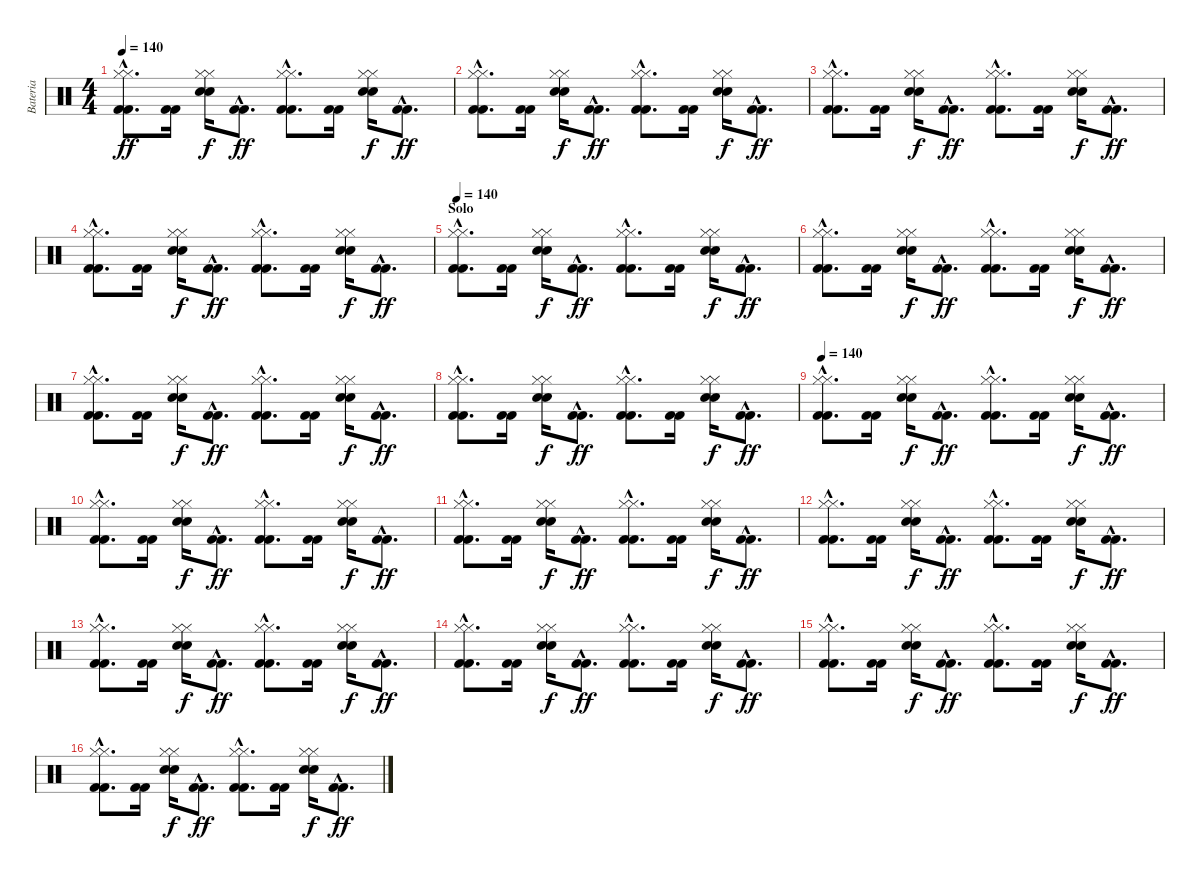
\track ("Bateria" "Bateria") {instrument percussion}
\staff {score}
\articulation defaults
\ts (4 4)
\tempo 140
\clef neutral
\ks c
("Hi-Hat (closed)"{hac} "Hi-Hat (closed)"{hac} "Kick (hit) 2"{hac} "Kick (hit) 2"{hac}).8{d dy ff} ("Kick (hit) 2" "Kick (hit) 2").16 ("Hi-Hat (closed)" "Hi-Hat (closed)" "Snare (hit) 2" "Snare (hit) 2").16{dy f} ("Kick (hit) 2"{hac} "Kick (hit) 2"{hac}).8{d dy ff} ("Hi-Hat (closed)"{hac} "Hi-Hat (closed)"{hac} "Kick (hit) 2"{hac} "Kick (hit) 2"{hac}).8{d} ("Kick (hit) 2" "Kick (hit) 2").16 ("Hi-Hat (closed)" "Hi-Hat (closed)" "Snare (hit) 2" "Snare (hit) 2").16{dy f} ("Kick (hit) 2"{hac} "Kick (hit) 2"{hac}).8{d dy ff} |
("Hi-Hat (closed)"{hac} "Hi-Hat (closed)"{hac} "Kick (hit) 2"{hac} "Kick (hit) 2"{hac}).8{d} ("Kick (hit) 2" "Kick (hit) 2").16 ("Hi-Hat (closed)" "Hi-Hat (closed)" "Snare (hit) 2" "Snare (hit) 2").16{dy f} ("Kick (hit) 2"{hac} "Kick (hit) 2"{hac}).8{d dy ff} ("Hi-Hat (closed)"{hac} "Hi-Hat (closed)"{hac} "Kick (hit) 2"{hac} "Kick (hit) 2"{hac}).8{d} ("Kick (hit) 2" "Kick (hit) 2").16 ("Hi-Hat (closed)" "Hi-Hat (closed)" "Snare (hit) 2" "Snare (hit) 2").16{dy f} ("Kick (hit) 2"{hac} "Kick (hit) 2"{hac}).8{d dy ff} |
("Hi-Hat (closed)"{hac} "Hi-Hat (closed)"{hac} "Kick (hit) 2"{hac} "Kick (hit) 2"{hac}).8{d} ("Kick (hit) 2" "Kick (hit) 2").16 ("Hi-Hat (closed)" "Hi-Hat (closed)" "Snare (hit) 2" "Snare (hit) 2").16{dy f} ("Kick (hit) 2"{hac} "Kick (hit) 2"{hac}).8{d dy ff} ("Hi-Hat (closed)"{hac} "Hi-Hat (closed)"{hac} "Kick (hit) 2"{hac} "Kick (hit) 2"{hac}).8{d} ("Kick (hit) 2" "Kick (hit) 2").16 ("Hi-Hat (closed)" "Hi-Hat (closed)" "Snare (hit) 2" "Snare (hit) 2").16{dy f} ("Kick (hit) 2"{hac} "Kick (hit) 2"{hac}).8{d dy ff} |
("Hi-Hat (closed)"{hac} "Hi-Hat (closed)"{hac} "Kick (hit) 2"{hac} "Kick (hit) 2"{hac}).8{d} ("Kick (hit) 2" "Kick (hit) 2").16 ("Hi-Hat (closed)" "Hi-Hat (closed)" "Snare (hit) 2" "Snare (hit) 2").16{dy f} ("Kick (hit) 2"{hac} "Kick (hit) 2"{hac}).8{d dy ff} ("Hi-Hat (closed)"{hac} "Hi-Hat (closed)"{hac} "Kick (hit) 2"{hac} "Kick (hit) 2"{hac}).8{d} ("Kick (hit) 2" "Kick (hit) 2").16 ("Hi-Hat (closed)" "Hi-Hat (closed)" "Snare (hit) 2" "Snare (hit) 2").16{dy f} ("Kick (hit) 2"{hac} "Kick (hit) 2"{hac}).8{d dy ff} |
\section ("" "Solo")
\tempo 140
("Hi-Hat (closed)"{hac} "Hi-Hat (closed)"{hac} "Kick (hit) 2"{hac} "Kick (hit) 2"{hac}).8{d} ("Kick (hit) 2" "Kick (hit) 2").16 ("Hi-Hat (closed)" "Hi-Hat (closed)" "Snare (hit) 2" "Snare (hit) 2").16{dy f} ("Kick (hit) 2"{hac} "Kick (hit) 2"{hac}).8{d dy ff} ("Hi-Hat (closed)"{hac} "Hi-Hat (closed)"{hac} "Kick (hit) 2"{hac} "Kick (hit) 2"{hac}).8{d} ("Kick (hit) 2" "Kick (hit) 2").16 ("Hi-Hat (closed)" "Hi-Hat (closed)" "Snare (hit) 2" "Snare (hit) 2").16{dy f} ("Kick (hit) 2"{hac} "Kick (hit) 2"{hac}).8{d dy ff} |
("Hi-Hat (closed)"{hac} "Hi-Hat (closed)"{hac} "Kick (hit) 2"{hac} "Kick (hit) 2"{hac}).8{d} ("Kick (hit) 2" "Kick (hit) 2").16 ("Hi-Hat (closed)" "Hi-Hat (closed)" "Snare (hit) 2" "Snare (hit) 2").16{dy f} ("Kick (hit) 2"{hac} "Kick (hit) 2"{hac}).8{d dy ff} ("Hi-Hat (closed)"{hac} "Hi-Hat (closed)"{hac} "Kick (hit) 2"{hac} "Kick (hit) 2"{hac}).8{d} ("Kick (hit) 2" "Kick (hit) 2").16 ("Hi-Hat (closed)" "Hi-Hat (closed)" "Snare (hit) 2" "Snare (hit) 2").16{dy f} ("Kick (hit) 2"{hac} "Kick (hit) 2"{hac}).8{d dy ff} |
("Hi-Hat (closed)"{hac} "Hi-Hat (closed)"{hac} "Kick (hit) 2"{hac} "Kick (hit) 2"{hac}).8{d} ("Kick (hit) 2" "Kick (hit) 2").16 ("Hi-Hat (closed)" "Hi-Hat (closed)" "Snare (hit) 2" "Snare (hit) 2").16{dy f} ("Kick (hit) 2"{hac} "Kick (hit) 2"{hac}).8{d dy ff} ("Hi-Hat (closed)"{hac} "Hi-Hat (closed)"{hac} "Kick (hit) 2"{hac} "Kick (hit) 2"{hac}).8{d} ("Kick (hit) 2" "Kick (hit) 2").16 ("Hi-Hat (closed)" "Hi-Hat (closed)" "Snare (hit) 2" "Snare (hit) 2").16{dy f} ("Kick (hit) 2"{hac} "Kick (hit) 2"{hac}).8{d dy ff} |
("Hi-Hat (closed)"{hac} "Hi-Hat (closed)"{hac} "Kick (hit) 2"{hac} "Kick (hit) 2"{hac}).8{d} ("Kick (hit) 2" "Kick (hit) 2").16 ("Hi-Hat (closed)" "Hi-Hat (closed)" "Snare (hit) 2" "Snare (hit) 2").16{dy f} ("Kick (hit) 2"{hac} "Kick (hit) 2"{hac}).8{d dy ff} ("Hi-Hat (closed)"{hac} "Hi-Hat (closed)"{hac} "Kick (hit) 2"{hac} "Kick (hit) 2"{hac}).8{d} ("Kick (hit) 2" "Kick (hit) 2").16 ("Hi-Hat (closed)" "Hi-Hat (closed)" "Snare (hit) 2" "Snare (hit) 2").16{dy f} ("Kick (hit) 2"{hac} "Kick (hit) 2"{hac}).8{d dy ff} |
\tempo 140
("Hi-Hat (closed)"{hac} "Hi-Hat (closed)"{hac} "Kick (hit) 2"{hac} "Kick (hit) 2"{hac}).8{d} ("Kick (hit) 2" "Kick (hit) 2").16 ("Hi-Hat (closed)" "Hi-Hat (closed)" "Snare (hit) 2" "Snare (hit) 2").16{dy f} ("Kick (hit) 2"{hac} "Kick (hit) 2"{hac}).8{d dy ff} ("Hi-Hat (closed)"{hac} "Hi-Hat (closed)"{hac} "Kick (hit) 2"{hac} "Kick (hit) 2"{hac}).8{d} ("Kick (hit) 2" "Kick (hit) 2").16 ("Hi-Hat (closed)" "Hi-Hat (closed)" "Snare (hit) 2" "Snare (hit) 2").16{dy f} ("Kick (hit) 2"{hac} "Kick (hit) 2"{hac}).8{d dy ff} |
("Hi-Hat (closed)"{hac} "Hi-Hat (closed)"{hac} "Kick (hit) 2"{hac} "Kick (hit) 2"{hac}).8{d} ("Kick (hit) 2" "Kick (hit) 2").16 ("Hi-Hat (closed)" "Hi-Hat (closed)" "Snare (hit) 2" "Snare (hit) 2").16{dy f} ("Kick (hit) 2"{hac} "Kick (hit) 2"{hac}).8{d dy ff} ("Hi-Hat (closed)"{hac} "Hi-Hat (closed)"{hac} "Kick (hit) 2"{hac} "Kick (hit) 2"{hac}).8{d} ("Kick (hit) 2" "Kick (hit) 2").16 ("Hi-Hat (closed)" "Hi-Hat (closed)" "Snare (hit) 2" "Snare (hit) 2").16{dy f} ("Kick (hit) 2"{hac} "Kick (hit) 2"{hac}).8{d dy ff} |
("Hi-Hat (closed)"{hac} "Hi-Hat (closed)"{hac} "Kick (hit) 2"{hac} "Kick (hit) 2"{hac}).8{d} ("Kick (hit) 2" "Kick (hit) 2").16 ("Hi-Hat (closed)" "Hi-Hat (closed)" "Snare (hit) 2" "Snare (hit) 2").16{dy f} ("Kick (hit) 2"{hac} "Kick (hit) 2"{hac}).8{d dy ff} ("Hi-Hat (closed)"{hac} "Hi-Hat (closed)"{hac} "Kick (hit) 2"{hac} "Kick (hit) 2"{hac}).8{d} ("Kick (hit) 2" "Kick (hit) 2").16 ("Hi-Hat (closed)" "Hi-Hat (closed)" "Snare (hit) 2" "Snare (hit) 2").16{dy f} ("Kick (hit) 2"{hac} "Kick (hit) 2"{hac}).8{d dy ff} |
("Hi-Hat (closed)"{hac} "Hi-Hat (closed)"{hac} "Kick (hit) 2"{hac} "Kick (hit) 2"{hac}).8{d} ("Kick (hit) 2" "Kick (hit) 2").16 ("Hi-Hat (closed)" "Hi-Hat (closed)" "Snare (hit) 2" "Snare (hit) 2").16{dy f} ("Kick (hit) 2"{hac} "Kick (hit) 2"{hac}).8{d dy ff} ("Hi-Hat (closed)"{hac} "Hi-Hat (closed)"{hac} "Kick (hit) 2"{hac} "Kick (hit) 2"{hac}).8{d} ("Kick (hit) 2" "Kick (hit) 2").16 ("Hi-Hat (closed)" "Hi-Hat (closed)" "Snare (hit) 2" "Snare (hit) 2").16{dy f} ("Kick (hit) 2"{hac} "Kick (hit) 2"{hac}).8{d dy ff} |
("Hi-Hat (closed)"{hac} "Hi-Hat (closed)"{hac} "Kick (hit) 2"{hac} "Kick (hit) 2"{hac}).8{d} ("Kick (hit) 2" "Kick (hit) 2").16 ("Hi-Hat (closed)" "Hi-Hat (closed)" "Snare (hit) 2" "Snare (hit) 2").16{dy f} ("Kick (hit) 2"{hac} "Kick (hit) 2"{hac}).8{d dy ff} ("Hi-Hat (closed)"{hac} "Hi-Hat (closed)"{hac} "Kick (hit) 2"{hac} "Kick (hit) 2"{hac}).8{d} ("Kick (hit) 2" "Kick (hit) 2").16 ("Hi-Hat (closed)" "Hi-Hat (closed)" "Snare (hit) 2" "Snare (hit) 2").16{dy f} ("Kick (hit) 2"{hac} "Kick (hit) 2"{hac}).8{d dy ff} |
("Hi-Hat (closed)"{hac} "Hi-Hat (closed)"{hac} "Kick (hit) 2"{hac} "Kick (hit) 2"{hac}).8{d} ("Kick (hit) 2" "Kick (hit) 2").16 ("Hi-Hat (closed)" "Hi-Hat (closed)" "Snare (hit) 2" "Snare (hit) 2").16{dy f} ("Kick (hit) 2"{hac} "Kick (hit) 2"{hac}).8{d dy ff} ("Hi-Hat (closed)"{hac} "Hi-Hat (closed)"{hac} "Kick (hit) 2"{hac} "Kick (hit) 2"{hac}).8{d} ("Kick (hit) 2" "Kick (hit) 2").16 ("Hi-Hat (closed)" "Hi-Hat (closed)" "Snare (hit) 2" "Snare (hit) 2").16{dy f} ("Kick (hit) 2"{hac} "Kick (hit) 2"{hac}).8{d dy ff} |
("Hi-Hat (closed)"{hac} "Hi-Hat (closed)"{hac} "Kick (hit) 2"{hac} "Kick (hit) 2"{hac}).8{d} ("Kick (hit) 2" "Kick (hit) 2").16 ("Hi-Hat (closed)" "Hi-Hat (closed)" "Snare (hit) 2" "Snare (hit) 2").16{dy f} ("Kick (hit) 2"{hac} "Kick (hit) 2"{hac}).8{d dy ff} ("Hi-Hat (closed)"{hac} "Hi-Hat (closed)"{hac} "Kick (hit) 2"{hac} "Kick (hit) 2"{hac}).8{d} ("Kick (hit) 2" "Kick (hit) 2").16 ("Hi-Hat (closed)" "Hi-Hat (closed)" "Snare (hit) 2" "Snare (hit) 2").16{dy f} ("Kick (hit) 2"{hac} "Kick (hit) 2"{hac}).8{d dy ff} |
("Hi-Hat (closed)"{hac} "Hi-Hat (closed)"{hac} "Kick (hit) 2"{hac} "Kick (hit) 2"{hac}).8{d} ("Kick (hit) 2" "Kick (hit) 2").16 ("Hi-Hat (closed)" "Hi-Hat (closed)" "Snare (hit) 2" "Snare (hit) 2").16{dy f} ("Kick (hit) 2"{hac} "Kick (hit) 2"{hac}).8{d dy ff} ("Hi-Hat (closed)"{hac} "Hi-Hat (closed)"{hac} "Kick (hit) 2"{hac} "Kick (hit) 2"{hac}).8{d} ("Kick (hit) 2" "Kick (hit) 2").16 ("Hi-Hat (closed)" "Hi-Hat (closed)" "Snare (hit) 2" "Snare (hit) 2").16{dy f} ("Kick (hit) 2"{hac} "Kick (hit) 2"{hac}).8{d dy ff}
